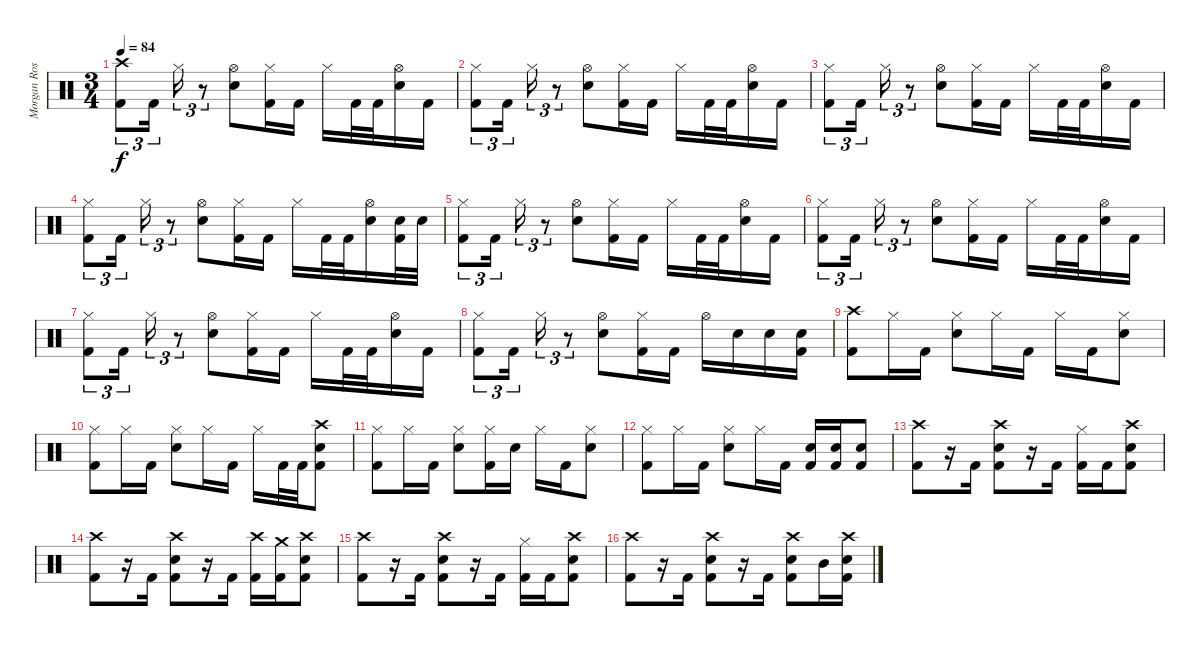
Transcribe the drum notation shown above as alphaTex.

\track ("Morgan Rose - Drums" "Morgan Ros") {instrument percussion}
\staff {score}
\articulation defaults
\ts (3 4)
\tempo 84
\clef neutral
\ks c
("Crash high (hit)" "Kick (hit) 2").8{tu (3 2) dy f} "Kick (hit) 2".16{tu (3 2)} "Hi-Hat (closed)".16{tu (3 2)} r.8{tu (3 2)} ("Hi-Hat (open)" "Electric Snare (hit)").8 ("Hi-Hat (closed)" "Kick (hit) 2").16 "Kick (hit) 2".16 "Hi-Hat (closed)".16 "Kick (hit) 2".32 "Kick (hit) 2".32 ("Hi-Hat (open)" "Electric Snare (hit)").16 "Kick (hit) 2".16 |
("Hi-Hat (closed)" "Kick (hit) 2").8{tu (3 2)} "Kick (hit) 2".16{tu (3 2)} "Hi-Hat (closed)".16{tu (3 2)} r.8{tu (3 2)} ("Hi-Hat (open)" "Electric Snare (hit)").8 ("Hi-Hat (closed)" "Kick (hit) 2").16 "Kick (hit) 2".16 "Hi-Hat (closed)".16 "Kick (hit) 2".32 "Kick (hit) 2".32 ("Hi-Hat (open)" "Electric Snare (hit)").16 "Kick (hit) 2".16 |
("Hi-Hat (closed)" "Kick (hit) 2").8{tu (3 2)} "Kick (hit) 2".16{tu (3 2)} "Hi-Hat (closed)".16{tu (3 2)} r.8{tu (3 2)} ("Hi-Hat (open)" "Electric Snare (hit)").8 ("Hi-Hat (closed)" "Kick (hit) 2").16 "Kick (hit) 2".16 "Hi-Hat (closed)".16 "Kick (hit) 2".32 "Kick (hit) 2".32 ("Hi-Hat (open)" "Electric Snare (hit)").16 "Kick (hit) 2".16 |
("Hi-Hat (closed)" "Kick (hit) 2").8{tu (3 2)} "Kick (hit) 2".16{tu (3 2)} "Hi-Hat (closed)".16{tu (3 2)} r.8{tu (3 2)} ("Hi-Hat (open)" "Electric Snare (hit)").8 ("Hi-Hat (closed)" "Kick (hit) 2").16 "Kick (hit) 2".16 "Hi-Hat (closed)".16 "Kick (hit) 2".32 "Kick (hit) 2".32 ("Hi-Hat (open)" "Electric Snare (hit)").16 ("Electric Snare (hit)" "Kick (hit) 2").32 "Electric Snare (hit)".32 |
("Hi-Hat (closed)" "Kick (hit) 2").8{tu (3 2)} "Kick (hit) 2".16{tu (3 2)} "Hi-Hat (closed)".16{tu (3 2)} r.8{tu (3 2)} ("Hi-Hat (open)" "Electric Snare (hit)").8 ("Hi-Hat (closed)" "Kick (hit) 2").16 "Kick (hit) 2".16 "Hi-Hat (closed)".16 "Kick (hit) 2".32 "Kick (hit) 2".32 ("Hi-Hat (open)" "Electric Snare (hit)").16 "Kick (hit) 2".16 |
("Hi-Hat (closed)" "Kick (hit) 2").8{tu (3 2)} "Kick (hit) 2".16{tu (3 2)} "Hi-Hat (closed)".16{tu (3 2)} r.8{tu (3 2)} ("Hi-Hat (open)" "Electric Snare (hit)").8 ("Hi-Hat (closed)" "Kick (hit) 2").16 "Kick (hit) 2".16 "Hi-Hat (closed)".16 "Kick (hit) 2".32 "Kick (hit) 2".32 ("Hi-Hat (open)" "Electric Snare (hit)").16 "Kick (hit) 2".16 |
("Hi-Hat (closed)" "Kick (hit) 2").8{tu (3 2)} "Kick (hit) 2".16{tu (3 2)} "Hi-Hat (closed)".16{tu (3 2)} r.8{tu (3 2)} ("Hi-Hat (open)" "Electric Snare (hit)").8 ("Hi-Hat (closed)" "Kick (hit) 2").16 "Kick (hit) 2".16 "Hi-Hat (closed)".16 "Kick (hit) 2".32 "Kick (hit) 2".32 ("Hi-Hat (open)" "Electric Snare (hit)").16 "Kick (hit) 2".16 |
("Hi-Hat (closed)" "Kick (hit) 2").8{tu (3 2)} "Kick (hit) 2".16{tu (3 2)} "Hi-Hat (closed)".16{tu (3 2)} r.8{tu (3 2)} ("Hi-Hat (open)" "Electric Snare (hit)").8 ("Hi-Hat (closed)" "Kick (hit) 2").16 "Kick (hit) 2".16 "Hi-Hat (open)".16 "Electric Snare (hit)".16 "Electric Snare (hit)".16 ("Electric Snare (hit)" "Kick (hit) 2").16 |
("Crash high (hit)" "Kick (hit) 2").8 "Hi-Hat (closed)".16 "Kick (hit) 2".16 ("Hi-Hat (closed)" "Electric Snare (hit)").8 "Hi-Hat (closed)".16 "Kick (hit) 2".16 "Hi-Hat (closed)".16 "Kick (hit) 2".16 ("Hi-Hat (closed)" "Electric Snare (hit)").8 |
("Hi-Hat (closed)" "Kick (hit) 2").8 "Hi-Hat (closed)".16 "Kick (hit) 2".16 ("Hi-Hat (closed)" "Electric Snare (hit)").8 "Hi-Hat (closed)".16 "Kick (hit) 2".16 "Hi-Hat (closed)".16 "Kick (hit) 2".32 "Kick (hit) 2".32 ("Crash high (hit)" "Electric Snare (hit)" "Kick (hit) 2").8 |
("Hi-Hat (closed)" "Kick (hit) 2").8 "Hi-Hat (closed)".16 "Kick (hit) 2".16 ("Hi-Hat (closed)" "Electric Snare (hit)").8 ("Hi-Hat (closed)" "Kick (hit) 2").16 "Electric Snare (hit)".16 "Hi-Hat (closed)".16 "Kick (hit) 2".16 ("Hi-Hat (closed)" "Electric Snare (hit)").8 |
("Hi-Hat (closed)" "Kick (hit) 2").8 "Hi-Hat (closed)".16 "Kick (hit) 2".16 ("Hi-Hat (closed)" "Electric Snare (hit)").8 "Hi-Hat (closed)".16 "Kick (hit) 2".16 ("Electric Snare (hit)" "Kick (hit) 2").16 ("Electric Snare (hit)" "Kick (hit) 2").16 ("Electric Snare (hit)" "Kick (hit) 2").8 |
("Crash high (hit)" "Kick (hit) 2").8 r.16 "Kick (hit) 2".16 ("Crash high (hit)" "Electric Snare (hit)" "Kick (hit) 2").8 r.16 "Kick (hit) 2".16 ("Hi-Hat (closed)" "Kick (hit) 2").16 "Kick (hit) 2".16 ("Crash high (hit)" "Electric Snare (hit)" "Kick (hit) 2").8 |
("Crash high (hit)" "Kick (hit) 2").8 r.16 "Kick (hit) 2".16 ("Crash high (hit)" "Electric Snare (hit)" "Kick (hit) 2").8 r.16 "Kick (hit) 2".16 ("Crash high (hit)" "Kick (hit) 2").16 ("Crash medium (hit)" "Kick (hit) 2").16 ("Crash high (hit)" "Electric Snare (hit)" "Kick (hit) 2").8 |
("Crash high (hit)" "Kick (hit) 2").8 r.16 "Kick (hit) 2".16 ("Crash high (hit)" "Electric Snare (hit)" "Kick (hit) 2").8 r.16 "Kick (hit) 2".16 ("Hi-Hat (closed)" "Kick (hit) 2").16 "Kick (hit) 2".16 ("Crash high (hit)" "Electric Snare (hit)" "Kick (hit) 2").8 |
("Crash high (hit)" "Kick (hit) 2").8 r.16 "Kick (hit) 2".16 ("Crash high (hit)" "Electric Snare (hit)" "Kick (hit) 2").8 r.16 "Kick (hit) 2".16 ("Crash high (hit)" "Electric Snare (hit)" "Kick (hit) 2").8 "Mid Tom (hit)".16 ("Crash high (hit)" "Electric Snare (hit)" "Kick (hit) 2").16
